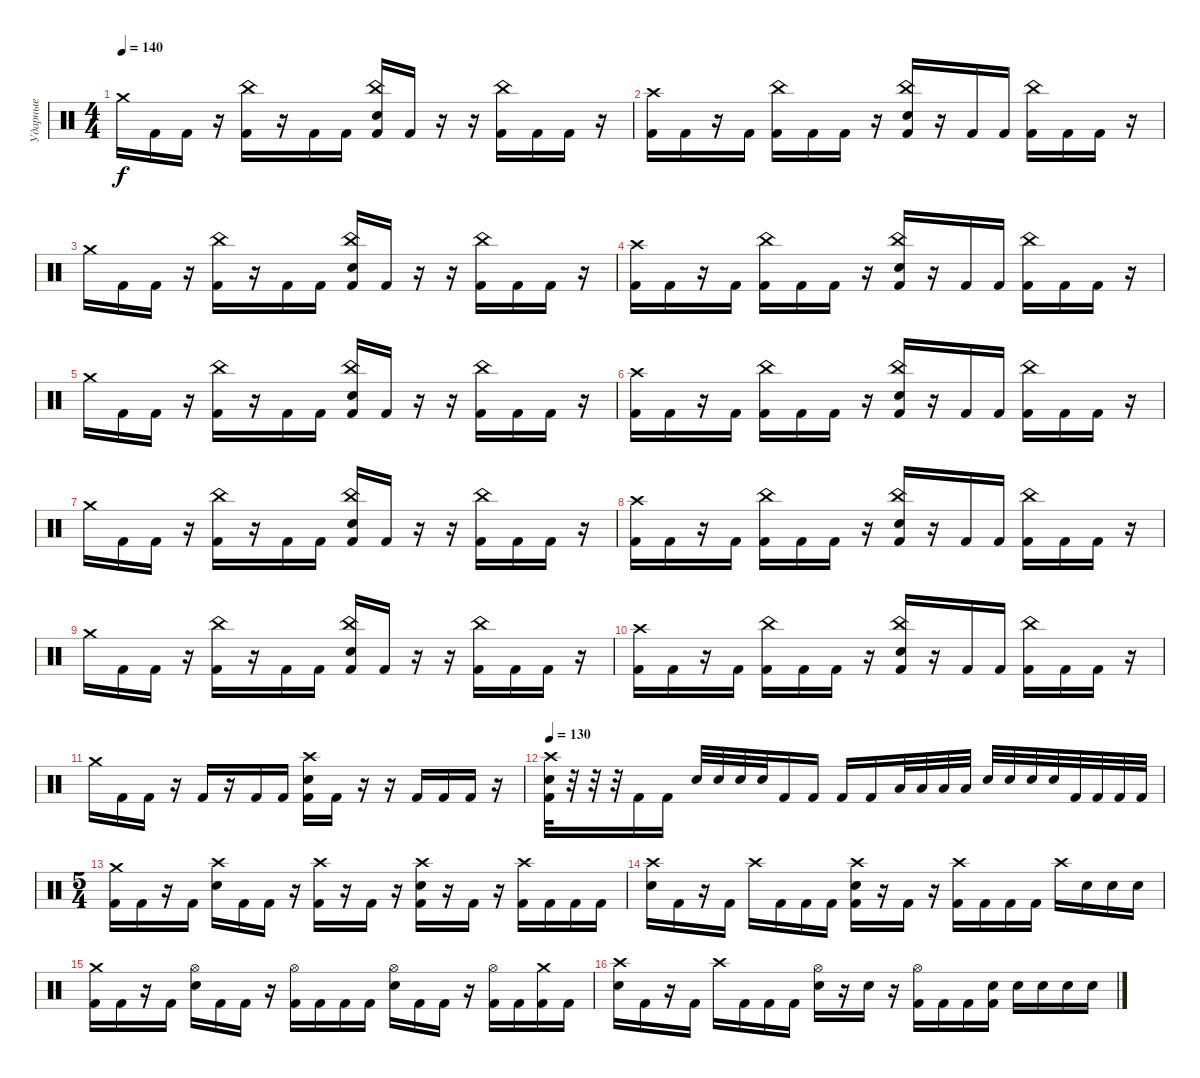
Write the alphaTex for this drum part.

\track ("Ударные" "Ударные") {instrument percussion}
\staff {score}
\articulation defaults
\ts (4 4)
\tempo 140
\clef neutral
\ks c "Crash medium (hit)".16{dy f} "Kick (hit) 2".16 "Kick (hit) 2".16
r.16 ("China (hit)" "Kick (hit) 2").16 r.16 "Kick (hit) 2".16 "Kick (hit) 2".16 ("China (hit)" "Electric Snare (hit)" "Kick (hit) 2").16 "Kick (hit) 2".16 r.16 r.16 ("China (hit)" "Kick (hit) 2").16 "Kick (hit) 2".16 "Kick (hit) 2".16 r.16 |
("Crash high (hit)" "Kick (hit) 2").16 "Kick (hit) 2".16 r.16 "Kick (hit) 2".16 ("China (hit)" "Kick (hit) 2").16 "Kick (hit) 2".16 "Kick (hit) 2".16 r.16 ("China (hit)" "Electric Snare (hit)" "Kick (hit) 2").16 r.16 "Kick (hit) 2".16 "Kick (hit) 2".16 ("China (hit)" "Kick (hit) 2").16 "Kick (hit) 2".16 "Kick (hit) 2".16 r.16 |
"Crash medium (hit)".16 "Kick (hit) 2".16 "Kick (hit) 2".16 r.16 ("China (hit)" "Kick (hit) 2").16 r.16 "Kick (hit) 2".16 "Kick (hit) 2".16 ("China (hit)" "Electric Snare (hit)" "Kick (hit) 2").16 "Kick (hit) 2".16 r.16 r.16 ("China (hit)" "Kick (hit) 2").16 "Kick (hit) 2".16 "Kick (hit) 2".16 r.16 |
("Crash high (hit)" "Kick (hit) 2").16 "Kick (hit) 2".16 r.16 "Kick (hit) 2".16 ("China (hit)" "Kick (hit) 2").16 "Kick (hit) 2".16 "Kick (hit) 2".16 r.16 ("China (hit)" "Electric Snare (hit)" "Kick (hit) 2").16 r.16 "Kick (hit) 2".16 "Kick (hit) 2".16 ("China (hit)" "Kick (hit) 2").16 "Kick (hit) 2".16 "Kick (hit) 2".16 r.16 |
"Crash medium (hit)".16 "Kick (hit) 2".16 "Kick (hit) 2".16 r.16 ("China (hit)" "Kick (hit) 2").16 r.16 "Kick (hit) 2".16 "Kick (hit) 2".16 ("China (hit)" "Electric Snare (hit)" "Kick (hit) 2").16 "Kick (hit) 2".16 r.16 r.16 ("China (hit)" "Kick (hit) 2").16 "Kick (hit) 2".16 "Kick (hit) 2".16 r.16 |
("Crash high (hit)" "Kick (hit) 2").16 "Kick (hit) 2".16 r.16 "Kick (hit) 2".16 ("China (hit)" "Kick (hit) 2").16 "Kick (hit) 2".16 "Kick (hit) 2".16 r.16 ("China (hit)" "Electric Snare (hit)" "Kick (hit) 2").16 r.16 "Kick (hit) 2".16 "Kick (hit) 2".16 ("China (hit)" "Kick (hit) 2").16 "Kick (hit) 2".16 "Kick (hit) 2".16 r.16 |
"Crash medium (hit)".16 "Kick (hit) 2".16 "Kick (hit) 2".16 r.16 ("China (hit)" "Kick (hit) 2").16 r.16 "Kick (hit) 2".16 "Kick (hit) 2".16 ("China (hit)" "Electric Snare (hit)" "Kick (hit) 2").16 "Kick (hit) 2".16 r.16 r.16 ("China (hit)" "Kick (hit) 2").16 "Kick (hit) 2".16 "Kick (hit) 2".16 r.16 |
("Crash high (hit)" "Kick (hit) 2").16 "Kick (hit) 2".16 r.16 "Kick (hit) 2".16 ("China (hit)" "Kick (hit) 2").16 "Kick (hit) 2".16 "Kick (hit) 2".16 r.16 ("China (hit)" "Electric Snare (hit)" "Kick (hit) 2").16 r.16 "Kick (hit) 2".16 "Kick (hit) 2".16 ("China (hit)" "Kick (hit) 2").16 "Kick (hit) 2".16 "Kick (hit) 2".16 r.16 |
"Crash medium (hit)".16 "Kick (hit) 2".16 "Kick (hit) 2".16 r.16 ("China (hit)" "Kick (hit) 2").16 r.16 "Kick (hit) 2".16 "Kick (hit) 2".16 ("China (hit)" "Electric Snare (hit)" "Kick (hit) 2").16 "Kick (hit) 2".16 r.16 r.16 ("China (hit)" "Kick (hit) 2").16 "Kick (hit) 2".16 "Kick (hit) 2".16 r.16 |
("Crash high (hit)" "Kick (hit) 2").16 "Kick (hit) 2".16 r.16 "Kick (hit) 2".16 ("China (hit)" "Kick (hit) 2").16 "Kick (hit) 2".16 "Kick (hit) 2".16 r.16 ("China (hit)" "Electric Snare (hit)" "Kick (hit) 2").16 r.16 "Kick (hit) 2".16 "Kick (hit) 2".16 ("China (hit)" "Kick (hit) 2").16 "Kick (hit) 2".16 "Kick (hit) 2".16 r.16 |
"Crash medium (hit)".16 "Kick (hit) 2".16 "Kick (hit) 2".16 r.16 "Kick (hit) 2".16 r.16 "Kick (hit) 2".16 "Kick (hit) 2".16 ("Crash high (hit)" "Electric Snare (hit)" "Kick (hit) 2").16 "Kick (hit) 2".16 r.16 r.16 "Kick (hit) 2".16 "Kick (hit) 2".16 "Kick (hit) 2".16 r.16 |
\tempo 130
("Crash high (hit)" "Electric Snare (hit)" "Kick (hit) 2").32 r.32 r.32 r.32 "Kick (hit) 2".16 "Kick (hit) 2".16 "Electric Snare (hit)".32 "Electric Snare (hit)".32 "Electric Snare (hit)".32 "Electric Snare (hit)".32 "Kick (hit) 2".16 "Kick (hit) 2".16 "Kick (hit) 2".16 "Kick (hit) 2".16 "Low Tom (hit)".32 "Low Tom (hit)".32 "Low Tom (hit)".32 "Low Tom (hit)".32 "Electric Snare (hit)".32 "Electric Snare (hit)".32 "Electric Snare (hit)".32 "Electric Snare (hit)".32 "Kick (hit) 2".32 "Kick (hit) 2".32 "Kick (hit) 2".32 "Kick (hit) 2".32 |
\ts (5 4)
("Crash medium (hit)" "Kick (hit) 2").16 "Kick (hit) 2".16 r.16 "Kick (hit) 2".16 ("Crash high (hit)" "Electric Snare (hit)").16 "Kick (hit) 2".16 "Kick (hit) 2".16 r.16 ("Crash high (hit)" "Kick (hit) 2").16 r.16 "Kick (hit) 2".16 r.16 ("Crash high (hit)" "Electric Snare (hit)" "Kick (hit) 2").16 r.16 "Kick (hit) 2".16 r.16 ("Crash high (hit)" "Kick (hit) 2").16 "Kick (hit) 2".16 "Kick (hit) 2".16 "Kick (hit) 2".16 |
("Crash high (hit)" "Electric Snare (hit)").16 "Kick (hit) 2".16 r.16 "Kick (hit) 2".16 "Crash high (hit)".16 "Kick (hit) 2".16 "Kick (hit) 2".16 "Kick (hit) 2".16 ("Crash high (hit)" "Electric Snare (hit)" "Kick (hit) 2").16 r.16 "Kick (hit) 2".16 r.16 ("Crash high (hit)" "Kick (hit) 2").16 "Kick (hit) 2".16 "Kick (hit) 2".16 "Kick (hit) 2".16 "Crash high (hit)".16 "Electric Snare (hit)".16 "Electric Snare (hit)".16 "Electric Snare (hit)".16 |
("Crash medium (hit)" "Kick (hit) 2").16 "Kick (hit) 2".16 r.16 "Kick (hit) 2".16 ("Hi-Hat (open)" "Electric Snare (hit)").16 "Kick (hit) 2".16 "Kick (hit) 2".16 r.16 ("Hi-Hat (open)" "Kick (hit) 2").16 "Kick (hit) 2".16 "Kick (hit) 2".16 "Kick (hit) 2".16 ("Hi-Hat (open)" "Electric Snare (hit)").16 "Kick (hit) 2".16 "Kick (hit) 2".16 r.16 ("Hi-Hat (open)" "Kick (hit) 2").16 "Kick (hit) 2".16 ("Crash medium (hit)" "Kick (hit) 2").16 "Kick (hit) 2".16 |
("Crash high (hit)" "Electric Snare (hit)").16 "Kick (hit) 2".16 r.16 "Kick (hit) 2".16 "Crash high (hit)".16 "Kick (hit) 2".16 "Kick (hit) 2".16 "Kick (hit) 2".16 ("Hi-Hat (open)" "Electric Snare (hit)").16 r.16 "Electric Snare (hit)".16 r.16 ("Hi-Hat (open)" "Kick (hit) 2").16 "Kick (hit) 2".16 "Kick (hit) 2".16 ("Electric Snare (hit)" "Kick (hit) 2").16 "Electric Snare (hit)".16 "Electric Snare (hit)".16 "Electric Snare (hit)".16 "Electric Snare (hit)".16
